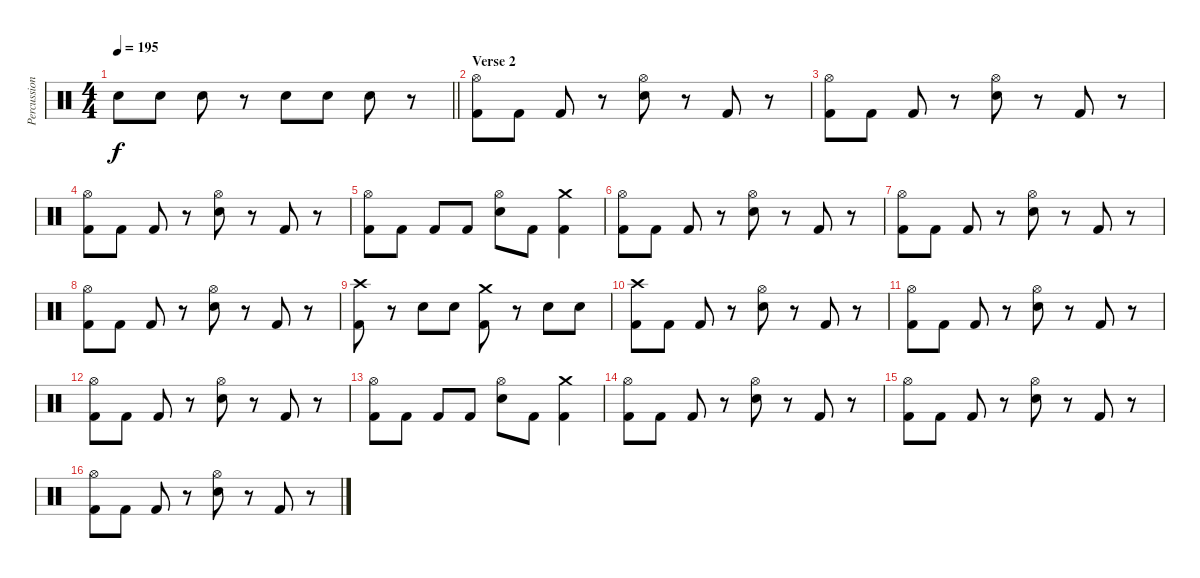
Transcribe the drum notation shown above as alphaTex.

\track ("Percussion" "Percussion") {instrument percussion}
\staff {score}
\articulation defaults
\ts (4 4)
\tempo 195
\clef neutral
\barLineRight lightlight
\ks c "Snare (hit) 2".8{dy f} "Snare (hit) 2".8 "Snare (hit) 2".8
r.8 "Snare (hit) 2".8 "Snare (hit) 2".8 "Snare (hit) 2".8 r.8 |
\section ("" "Verse 2")
("Hi-Hat (open)" "Kick (hit) 2").8 "Kick (hit) 2".8 "Kick (hit) 2".8 r.8 ("Hi-Hat (open)" "Snare (hit) 2").8 r.8 "Kick (hit) 2".8 r.8 |
("Hi-Hat (open)" "Kick (hit) 2").8 "Kick (hit) 2".8 "Kick (hit) 2".8 r.8 ("Hi-Hat (open)" "Snare (hit) 2").8 r.8 "Kick (hit) 2".8 r.8 |
("Hi-Hat (open)" "Kick (hit) 2").8 "Kick (hit) 2".8 "Kick (hit) 2".8 r.8 ("Hi-Hat (open)" "Snare (hit) 2").8 r.8 "Kick (hit) 2".8 r.8 |
("Hi-Hat (open)" "Kick (hit) 2").8 "Kick (hit) 2".8 "Kick (hit) 2".8 "Kick (hit) 2".8 ("Hi-Hat (open)" "Snare (hit) 2").8 "Kick (hit) 2".8 ("Crash medium (hit)" "Kick (hit) 2").4 |
("Hi-Hat (open)" "Kick (hit) 2").8 "Kick (hit) 2".8 "Kick (hit) 2".8 r.8 ("Hi-Hat (open)" "Snare (hit) 2").8 r.8 "Kick (hit) 2".8 r.8 |
("Hi-Hat (open)" "Kick (hit) 2").8 "Kick (hit) 2".8 "Kick (hit) 2".8 r.8 ("Hi-Hat (open)" "Snare (hit) 2").8 r.8 "Kick (hit) 2".8 r.8 |
("Hi-Hat (open)" "Kick (hit) 2").8 "Kick (hit) 2".8 "Kick (hit) 2".8 r.8 ("Hi-Hat (open)" "Snare (hit) 2").8 r.8 "Kick (hit) 2".8 r.8 |
("Crash high (hit)" "Kick (hit) 2").8 r.8 "Snare (hit) 2".8 "Snare (hit) 2".8 ("Crash medium (hit)" "Kick (hit) 2").8 r.8 "Snare (hit) 2".8 "Snare (hit) 2".8 |
("Crash high (hit)" "Kick (hit) 2").8 "Kick (hit) 2".8 "Kick (hit) 2".8 r.8 ("Hi-Hat (open)" "Snare (hit) 2").8 r.8 "Kick (hit) 2".8 r.8 |
("Hi-Hat (open)" "Kick (hit) 2").8 "Kick (hit) 2".8 "Kick (hit) 2".8 r.8 ("Hi-Hat (open)" "Snare (hit) 2").8 r.8 "Kick (hit) 2".8 r.8 |
("Hi-Hat (open)" "Kick (hit) 2").8 "Kick (hit) 2".8 "Kick (hit) 2".8 r.8 ("Hi-Hat (open)" "Snare (hit) 2").8 r.8 "Kick (hit) 2".8 r.8 |
("Hi-Hat (open)" "Kick (hit) 2").8 "Kick (hit) 2".8 "Kick (hit) 2".8 "Kick (hit) 2".8 ("Hi-Hat (open)" "Snare (hit) 2").8 "Kick (hit) 2".8 ("Crash medium (hit)" "Kick (hit) 2").4 |
("Hi-Hat (open)" "Kick (hit) 2").8 "Kick (hit) 2".8 "Kick (hit) 2".8 r.8 ("Hi-Hat (open)" "Snare (hit) 2").8 r.8 "Kick (hit) 2".8 r.8 |
("Hi-Hat (open)" "Kick (hit) 2").8 "Kick (hit) 2".8 "Kick (hit) 2".8 r.8 ("Hi-Hat (open)" "Snare (hit) 2").8 r.8 "Kick (hit) 2".8 r.8 |
("Hi-Hat (open)" "Kick (hit) 2").8 "Kick (hit) 2".8 "Kick (hit) 2".8 r.8 ("Hi-Hat (open)" "Snare (hit) 2").8 r.8 "Kick (hit) 2".8 r.8
